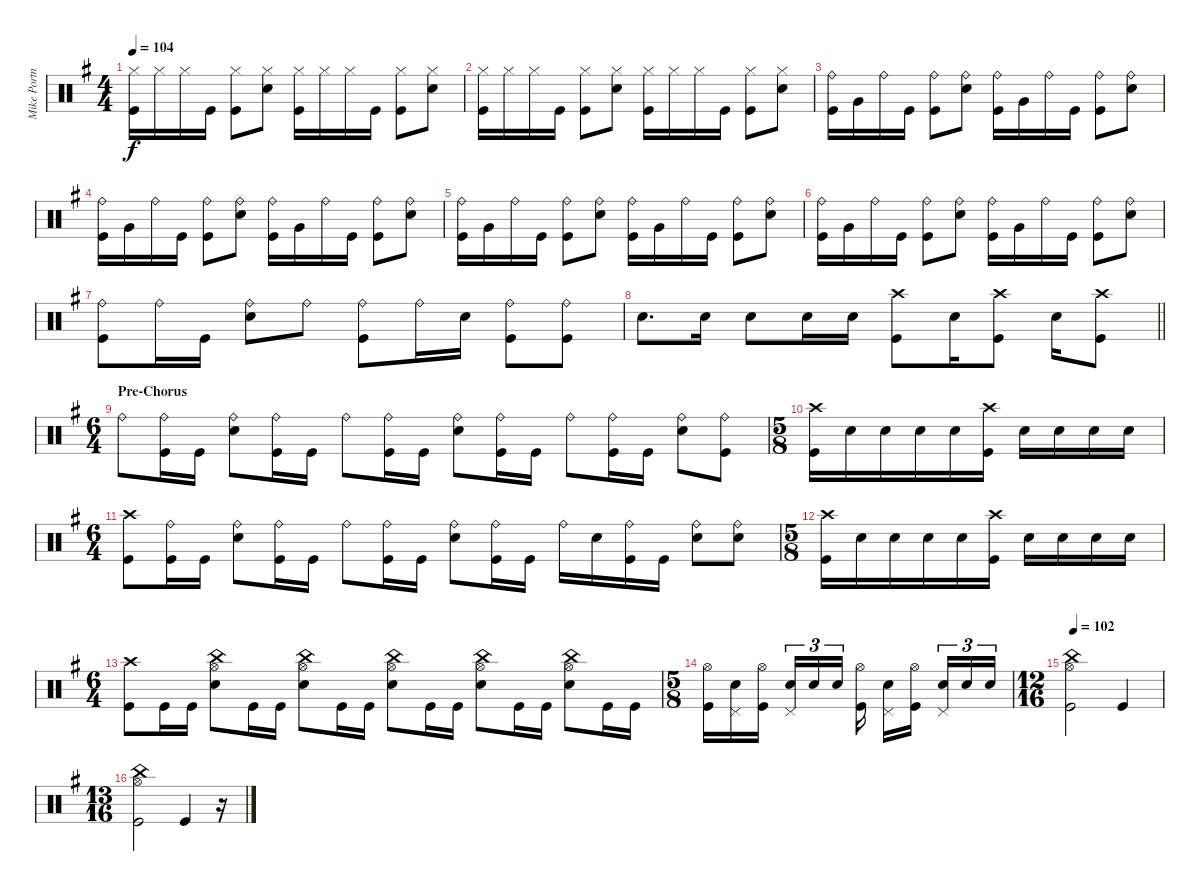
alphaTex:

\track ("Mike Portnoy" "Mike Portn") {instrument percussion}
\staff {score}
\articulation defaults
\ts (4 4)
\tempo 104
\clef neutral
\ks eminor
("Kick (hit)" "Hi-Hat (closed)").16{dy f} "Hi-Hat (closed)".16 "Hi-Hat (closed)".16 "Kick (hit)".16 ("Kick (hit)" "Hi-Hat (closed)").8 ("Electric Snare (hit)" "Hi-Hat (closed)").8 ("Kick (hit)" "Hi-Hat (closed)").16 "Hi-Hat (closed)".16 "Hi-Hat (closed)".16 "Kick (hit)".16 ("Kick (hit)" "Hi-Hat (closed)").8 ("Electric Snare (hit)" "Hi-Hat (closed)").8 |
("Kick (hit)" "Hi-Hat (closed)").16 "Hi-Hat (closed)".16 "Hi-Hat (closed)".16 "Kick (hit)".16 ("Kick (hit)" "Hi-Hat (closed)").8 ("Electric Snare (hit)" "Hi-Hat (closed)").8 ("Kick (hit)" "Hi-Hat (closed)").16 "Hi-Hat (closed)".16 "Hi-Hat (closed)".16 "Kick (hit)".16 ("Kick (hit)" "Hi-Hat (closed)").8 ("Electric Snare (hit)" "Hi-Hat (closed)").8 |
("Ride (bell)" "Kick (hit)").16 "Very Low Tom (hit)".16 "Ride (bell)".16 "Kick (hit)".16 ("Ride (bell)" "Kick (hit)").8 ("Ride (bell)" "Electric Snare (hit)").8 ("Ride (bell)" "Kick (hit)").16 "Very Low Tom (hit)".16 "Ride (bell)".16 "Kick (hit)".16 ("Ride (bell)" "Kick (hit)").8 ("Ride (bell)" "Electric Snare (hit)").8 |
("Ride (bell)" "Kick (hit)").16 "Very Low Tom (hit)".16 "Ride (bell)".16 "Kick (hit)".16 ("Ride (bell)" "Kick (hit)").8 ("Ride (bell)" "Electric Snare (hit)").8 ("Ride (bell)" "Kick (hit)").16 "Very Low Tom (hit)".16 "Ride (bell)".16 "Kick (hit)".16 ("Ride (bell)" "Kick (hit)").8 ("Ride (bell)" "Electric Snare (hit)").8 |
("Ride (bell)" "Kick (hit)").16 "Very Low Tom (hit)".16 "Ride (bell)".16 "Kick (hit)".16 ("Ride (bell)" "Kick (hit)").8 ("Ride (bell)" "Electric Snare (hit)").8 ("Ride (bell)" "Kick (hit)").16 "Very Low Tom (hit)".16 "Ride (bell)".16 "Kick (hit)".16 ("Ride (bell)" "Kick (hit)").8 ("Ride (bell)" "Electric Snare (hit)").8 |
("Ride (bell)" "Kick (hit)").16 "Very Low Tom (hit)".16 "Ride (bell)".16 "Kick (hit)".16 ("Ride (bell)" "Kick (hit)").8 ("Ride (bell)" "Electric Snare (hit)").8 ("Ride (bell)" "Kick (hit)").16 "Very Low Tom (hit)".16 "Ride (bell)".16 "Kick (hit)".16 ("Ride (bell)" "Kick (hit)").8 ("Ride (bell)" "Electric Snare (hit)").8 |
("Ride (bell)" "Kick (hit)").8 "Ride (bell)".16 "Kick (hit)".16 ("Ride (bell)" "Electric Snare (hit)").8 "Ride (bell)".8 ("Ride (bell)" "Kick (hit)").8 "Ride (bell)".16 "Electric Snare (hit)".16 ("Ride (bell)" "Kick (hit)").8 ("Ride (bell)" "Kick (hit)").8 |
\barLineRight lightlight "Snare (hit) 2".8{d} "Snare (hit) 2".16 "Snare (hit) 2".8 "Snare (hit) 2".16 "Snare (hit) 2".16
("Kick (hit)" "Crash high (hit)").8 "Electric Snare (hit)".16 ("Kick (hit)" "Crash high (hit)").8 "Electric Snare (hit)".16 ("Kick (hit)" "Crash high (hit)").8 |
\ts (6 4)
\section ("" "Pre-Chorus")
"Ride (bell)".8 ("Ride (bell)" "Kick (hit)").16 "Kick (hit)".16 ("Ride (bell)" "Snare (hit) 2").8 ("Ride (bell)" "Kick (hit)").16 "Kick (hit)".16 "Ride (bell)".8 ("Ride (bell)" "Kick (hit)").16 "Kick (hit)".16 ("Ride (bell)" "Snare (hit) 2").8 ("Ride (bell)" "Kick (hit)").16 "Kick (hit)".16 "Ride (bell)".8 ("Ride (bell)" "Kick (hit)").16 "Kick (hit)".16 ("Snare (hit) 2" "Ride (bell)").8 ("Kick (hit)" "Ride (bell)").8 |
\ts (5 8)
("Kick (hit)" "Crash high (hit)").16 "Snare (hit) 2".16 "Snare (hit) 2".16 "Snare (hit) 2".16 "Snare (hit) 2".16 ("Kick (hit)" "Crash high (hit)").16 "Snare (hit) 2".16 "Snare (hit) 2".16 "Snare (hit) 2".16 "Snare (hit) 2".16 |
\ts (6 4)
("Kick (hit)" "Crash high (hit)").8 ("Ride (bell)" "Kick (hit)").16 "Kick (hit)".16 ("Ride (bell)" "Snare (hit) 2").8 ("Ride (bell)" "Kick (hit)").16 "Kick (hit)".16 "Ride (bell)".8 ("Ride (bell)" "Kick (hit)").16 "Kick (hit)".16 ("Ride (bell)" "Snare (hit) 2").8 ("Ride (bell)" "Kick (hit)").16 "Kick (hit)".16 "Ride (bell)".16 "Snare (hit) 2".16 ("Ride (bell)" "Kick (hit)").16 "Kick (hit)".16 ("Snare (hit) 2" "Ride (bell)").8 ("Snare (hit) 2" "Ride (bell)").8 |
\ts (5 8)
("Kick (hit)" "Crash high (hit)").16 "Snare (hit) 2".16 "Snare (hit) 2".16 "Snare (hit) 2".16 "Snare (hit) 2".16 ("Kick (hit)" "Crash high (hit)").16 "Snare (hit) 2".16 "Snare (hit) 2".16 "Snare (hit) 2".16 "Snare (hit) 2".16 |
\ts (6 4)
("Crash high (hit)" "Kick (hit)").8 "Kick (hit)".16 "Kick (hit)".16 ("Hi-Hat (open)" "China (hit)" "Snare (hit) 2").8 "Kick (hit)".16 "Kick (hit)".16 ("Hi-Hat (open)" "China (hit)" "Snare (hit) 2").8 "Kick (hit)".16 "Kick (hit)".16 ("Hi-Hat (open)" "China (hit)" "Snare (hit) 2").8 "Kick (hit)".16 "Kick (hit)".16 ("Snare (hit) 2" "Hi-Hat (open)" "China (hit)").8 "Kick (hit)".16 "Kick (hit)".16 ("Snare (hit) 2" "Hi-Hat (open)" "China (hit)").8 "Kick (hit)".16 "Kick (hit)".16 |
\ts (5 8)
("Hi-Hat (open)" "Kick (hit)").16 ("Electric Snare (hit)" "Pedal Hi-Hat (hit)").16 ("Hi-Hat (open)" "Kick (hit)").16{beam splitsecondary} ("Electric Snare (hit)" "Pedal Hi-Hat (hit)").16{tu (3 2)} "Electric Snare (hit)".16{tu (3 2)} "Electric Snare (hit)".16{tu (3 2)} ("Hi-Hat (open)" "Kick (hit)").16 ("Electric Snare (hit)" "Pedal Hi-Hat (hit)").16 ("Hi-Hat (open)" "Kick (hit)").16 ("Electric Snare (hit)" "Pedal Hi-Hat (hit)").16{tu (3 2)} "Electric Snare (hit)".16{tu (3 2)} "Electric Snare (hit)".16{tu (3 2)} |
\ts (12 16)
\tempo 102
("Kick (hit)" "Hi-Hat (open)" "China (hit)").2 "Kick (hit)".4 |
\ts (13 16)
("Kick (hit)" "Hi-Hat (open)" "China (hit)").2 "Kick (hit)".4 r.16
